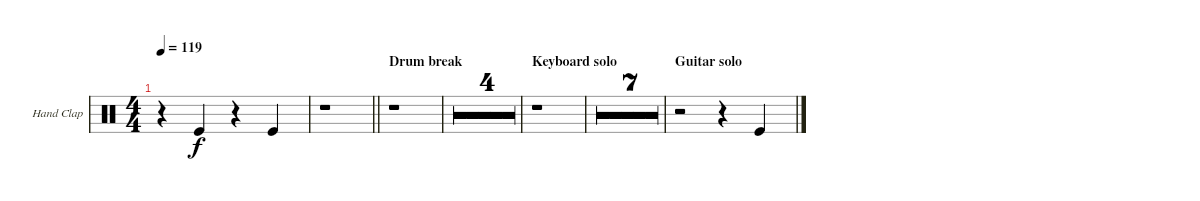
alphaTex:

\defaultSystemsLayout 4
\bracketExtendMode groupsimilarinstruments
\useSystemSignSeparator
\multiBarRest
\multiTrackTrackNamePolicy allsystems
\firstSystemTrackNameMode fullname
\firstSystemTrackNameOrientation horizontal
\otherSystemsTrackNameOrientation horizontal
\defaultBarNumberDisplay FirstOfSystem
\track ("Hand Clap" "H-Clap") {multiBarRest instrument percussion}
\staff {score}
\articulation defaults
\ts (4 4)
\tempo 119
\clef neutral
\ks aminor
r.4{dy f} "Kick (hit)".4 r.4 "Kick (hit)".4 |
\barLineRight lightlight
r.1 |
\section ("" "Drum break")
r.1 |
r.1 |
r.1 |
r.1 |
\barLineRight lightlight
r.1 |
\section ("" "Keyboard solo")
r.1 |
r.1 |
r.1 |
r.1 |
r.1 |
r.1 |
r.1 |
\barLineRight lightlight
r.1 |
\section ("" "Guitar solo")
r.2 r.4 "Kick (hit)".4
